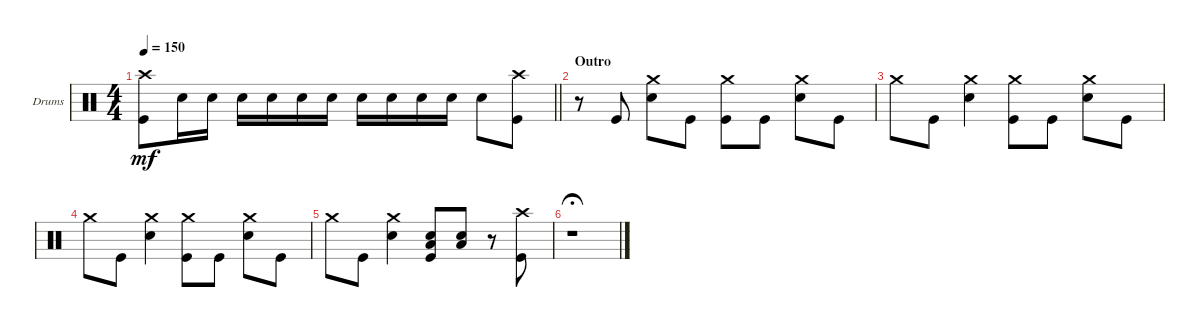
\defaultSystemsLayout 4
\bracketExtendMode groupsimilarinstruments
\firstSystemTrackNameOrientation horizontal
\otherSystemsTrackNameOrientation horizontal
\track ("Drums" "Drums") {instrument percussion}
\staff {score}
\articulation defaults
\ts (4 4)
\tempo 150
\clef neutral
\barLineRight lightlight
\ks c
("Crash high (hit)" "Kick (hit)").8{dy mf} "Snare (hit) 2".16 "Snare (hit) 2".16 "Snare (hit) 2".16 "Snare (hit) 2".16 "Snare (hit) 2".16 "Snare (hit) 2".16 "Snare (hit) 2".16 "Snare (hit) 2".16 "Snare (hit) 2".16 "Snare (hit) 2".16 "Snare (hit) 2".8 ("Kick (hit)" "Crash high (hit)").8 |
\section ("" "Outro")
r.8 "Kick (hit)".8 ("Snare (hit) 2" "Crash medium (hit)").8 "Kick (hit)".8 ("Kick (hit)" "Crash medium (hit)").8 "Kick (hit)".8 ("Snare (hit) 2" "Crash medium (hit)").8 "Kick (hit)".8 |
"Crash medium (hit)".8 "Kick (hit)".8 ("Snare (hit) 2" "Crash medium (hit)").4 ("Kick (hit)" "Crash medium (hit)").8 "Kick (hit)".8 ("Snare (hit) 2" "Crash medium (hit)").8 "Kick (hit)".8 |
"Crash medium (hit)".8 "Kick (hit)".8 ("Snare (hit) 2" "Crash medium (hit)").4 ("Kick (hit)" "Crash medium (hit)").8 "Kick (hit)".8 ("Snare (hit) 2" "Crash medium (hit)").8 "Kick (hit)".8 |
"Crash medium (hit)".8 "Kick (hit)".8 ("Snare (hit) 2" "Crash medium (hit)").4 ("Snare (hit) 2" "Low Tom (hit)" "Kick (hit)").8 ("Low Tom (hit)" "Snare (hit) 2").8 r.8 ("Kick (hit)" "Crash high (hit)").8 |
r.1{fermata (medium 1)}
